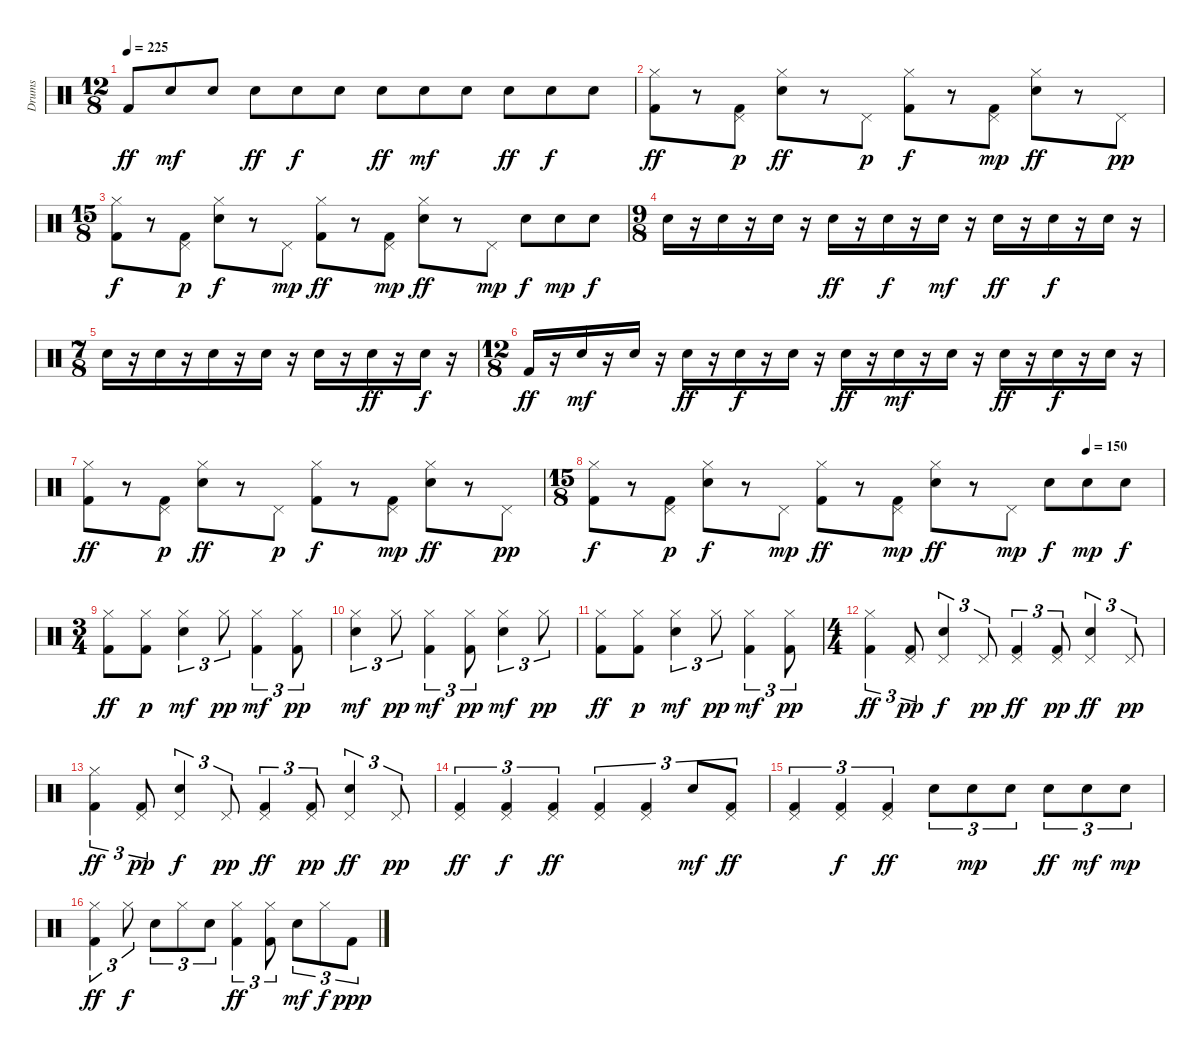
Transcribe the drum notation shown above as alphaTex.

\track ("Drums" "Drums") {instrument percussion}
\staff {score}
\articulation defaults
\ts (12 8)
\tempo 225
\clef neutral
\ks c "Kick (hit) 2".8{dy ff} "Snare (hit) 2".8{dy mf} "Snare (hit) 2".8 "Snare (hit) 2".8{dy ff} "Snare (hit) 2".8{dy f} "Snare (hit) 2".8 "Snare (hit) 2".8{dy ff} "Snare (hit) 2".8{dy mf} "Snare (hit) 2".8 "Snare (hit) 2".8{dy ff} "Snare (hit) 2".8{dy f} "Snare (hit) 2".8
|
("Kick (hit) 2" "Hi-Hat (closed)").8{dy ff} r.8 ("Kick (hit) 2" "Pedal Hi-Hat (hit)").8{dy p} ("Snare (hit) 2" "Hi-Hat (closed)").8{dy ff} r.8 "Pedal Hi-Hat (hit)".8{dy p} ("Kick (hit) 2" "Hi-Hat (closed)").8{dy f} r.8 ("Kick (hit) 2" "Pedal Hi-Hat (hit)").8{dy mp} ("Snare (hit) 2" "Hi-Hat (closed)").8{dy ff} r.8 "Pedal Hi-Hat (hit)".8{dy pp} |
\ts (15 8)
("Kick (hit) 2" "Hi-Hat (closed)").8{dy f} r.8 ("Kick (hit) 2" "Pedal Hi-Hat (hit)").8{dy p} ("Snare (hit) 2" "Hi-Hat (closed)").8{dy f} r.8 "Pedal Hi-Hat (hit)".8{dy mp} ("Kick (hit) 2" "Hi-Hat (closed)").8{dy ff} r.8 ("Kick (hit) 2" "Pedal Hi-Hat (hit)").8{dy mp} ("Snare (hit) 2" "Hi-Hat (closed)").8{dy ff} r.8 "Pedal Hi-Hat (hit)".8{dy mp} "Snare (hit) 2".8{dy f} "Snare (hit) 2".8{dy mp} "Snare (hit) 2".8{dy f} |
\ts (9 8)
"Snare (hit) 2".16 r.16 "Snare (hit) 2".16 r.16 "Snare (hit) 2".16 r.16 "Snare (hit) 2".16{dy ff} r.16 "Snare (hit) 2".16{dy f} r.16 "Snare (hit) 2".16{dy mf} r.16 "Snare (hit) 2".16{dy ff} r.16 "Snare (hit) 2".16{dy f} r.16 "Snare (hit) 2".16 r.16 |
\ts (7 8)
"Snare (hit) 2".16 r.16 "Snare (hit) 2".16 r.16 "Snare (hit) 2".16 r.16 "Snare (hit) 2".16 r.16 "Snare (hit) 2".16 r.16 "Snare (hit) 2".16{dy ff} r.16 "Snare (hit) 2".16{dy f} r.16 |
\ts (12 8)
"Kick (hit) 2".16{dy ff} r.16 "Snare (hit) 2".16{dy mf} r.16 "Snare (hit) 2".16 r.16 "Snare (hit) 2".16{dy ff} r.16 "Snare (hit) 2".16{dy f} r.16 "Snare (hit) 2".16 r.16 "Snare (hit) 2".16{dy ff} r.16 "Snare (hit) 2".16{dy mf} r.16 "Snare (hit) 2".16 r.16 "Snare (hit) 2".16{dy ff} r.16 "Snare (hit) 2".16{dy f} r.16 "Snare (hit) 2".16 r.16 |
("Kick (hit) 2" "Hi-Hat (closed)").8{dy ff} r.8 ("Kick (hit) 2" "Pedal Hi-Hat (hit)").8{dy p} ("Snare (hit) 2" "Hi-Hat (closed)").8{dy ff} r.8 "Pedal Hi-Hat (hit)".8{dy p} ("Kick (hit) 2" "Hi-Hat (closed)").8{dy f} r.8 ("Kick (hit) 2" "Pedal Hi-Hat (hit)").8{dy mp} ("Snare (hit) 2" "Hi-Hat (closed)").8{dy ff} r.8 "Pedal Hi-Hat (hit)".8{dy pp} |
\ts (15 8)
\tempo (150 0.8666666666666667)
("Kick (hit) 2" "Hi-Hat (closed)").8{dy f} r.8 ("Kick (hit) 2" "Pedal Hi-Hat (hit)").8{dy p} ("Snare (hit) 2" "Hi-Hat (closed)").8{dy f} r.8 "Pedal Hi-Hat (hit)".8{dy mp} ("Kick (hit) 2" "Hi-Hat (closed)").8{dy ff} r.8 ("Kick (hit) 2" "Pedal Hi-Hat (hit)").8{dy mp} ("Snare (hit) 2" "Hi-Hat (closed)").8{dy ff} r.8 "Pedal Hi-Hat (hit)".8{dy mp} "Snare (hit) 2".8{dy f} "Snare (hit) 2".8{dy mp} "Snare (hit) 2".8{dy f} |
\ts (3 4)
("Kick (hit) 2" "Hi-Hat (closed)").8{dy ff} ("Kick (hit) 2" "Hi-Hat (closed)").8{dy p} ("Snare (hit) 2" "Hi-Hat (closed)").4{tu (3 2) dy mf} "Hi-Hat (closed)".8{tu (3 2) dy pp} ("Kick (hit) 2" "Hi-Hat (closed)").4{tu (3 2) dy mf} ("Kick (hit) 2" "Hi-Hat (closed)").8{tu (3 2) dy pp} |
("Snare (hit) 2" "Hi-Hat (closed)").4{tu (3 2) dy mf} "Hi-Hat (closed)".8{tu (3 2) dy pp} ("Kick (hit) 2" "Hi-Hat (closed)").4{tu (3 2) dy mf} ("Kick (hit) 2" "Hi-Hat (closed)").8{tu (3 2) dy pp} ("Snare (hit) 2" "Hi-Hat (closed)").4{tu (3 2) dy mf} "Hi-Hat (closed)".8{tu (3 2) dy pp} |
("Kick (hit) 2" "Hi-Hat (closed)").8{dy ff} ("Kick (hit) 2" "Hi-Hat (closed)").8{dy p} ("Snare (hit) 2" "Hi-Hat (closed)").4{tu (3 2) dy mf} "Hi-Hat (closed)".8{tu (3 2) dy pp} ("Kick (hit) 2" "Hi-Hat (closed)").4{tu (3 2) dy mf} ("Kick (hit) 2" "Hi-Hat (closed)").8{tu (3 2) dy pp} |
\ts (4 4)
("Kick (hit) 2" "Hi-Hat (closed)").4{tu (3 2) dy ff} ("Kick (hit) 2" "Pedal Hi-Hat (hit)").8{tu (3 2) dy pp} ("Snare (hit) 2" "Pedal Hi-Hat (hit)").4{tu (3 2) dy f} "Pedal Hi-Hat (hit)".8{tu (3 2) dy pp} ("Kick (hit) 2" "Pedal Hi-Hat (hit)").4{tu (3 2) dy ff} ("Kick (hit) 2" "Pedal Hi-Hat (hit)").8{tu (3 2) dy pp} ("Snare (hit) 2" "Pedal Hi-Hat (hit)").4{tu (3 2) dy ff} "Pedal Hi-Hat (hit)".8{tu (3 2) dy pp} |
("Kick (hit) 2" "Hi-Hat (closed)").4{tu (3 2) dy ff} ("Kick (hit) 2" "Pedal Hi-Hat (hit)").8{tu (3 2) dy pp} ("Snare (hit) 2" "Pedal Hi-Hat (hit)").4{tu (3 2) dy f} "Pedal Hi-Hat (hit)".8{tu (3 2) dy pp} ("Kick (hit) 2" "Pedal Hi-Hat (hit)").4{tu (3 2) dy ff} ("Kick (hit) 2" "Pedal Hi-Hat (hit)").8{tu (3 2) dy pp} ("Snare (hit) 2" "Pedal Hi-Hat (hit)").4{tu (3 2) dy ff} "Pedal Hi-Hat (hit)".8{tu (3 2) dy pp} |
("Kick (hit) 2" "Pedal Hi-Hat (hit)").4{tu (3 2) dy ff} ("Kick (hit) 2" "Pedal Hi-Hat (hit)").4{tu (3 2) dy f} ("Kick (hit) 2" "Pedal Hi-Hat (hit)").4{tu (3 2) dy ff} ("Kick (hit) 2" "Pedal Hi-Hat (hit)").4{tu (3 2)} ("Kick (hit) 2" "Pedal Hi-Hat (hit)").4{tu (3 2)} "Snare (hit) 2".8{tu (3 2) dy mf} ("Kick (hit) 2" "Pedal Hi-Hat (hit)").8{tu (3 2) dy ff} |
("Kick (hit) 2" "Pedal Hi-Hat (hit)").4{tu (3 2)} ("Kick (hit) 2" "Pedal Hi-Hat (hit)").4{tu (3 2) dy f} ("Kick (hit) 2" "Pedal Hi-Hat (hit)").4{tu (3 2) dy ff} "Snare (hit) 2".8{tu (3 2)} "Snare (hit) 2".8{tu (3 2) dy mp} "Snare (hit) 2".8{tu (3 2)} "Snare (hit) 2".8{tu (3 2) dy ff} "Snare (hit) 2".8{tu (3 2) dy mf} "Snare (hit) 2".8{tu (3 2) dy mp} |
("Kick (hit) 2" "Hi-Hat (closed)").4{tu (3 2) dy ff} "Hi-Hat (closed)".8{tu (3 2) dy f} "Snare (hit) 2".8{tu (3 2)} "Hi-Hat (closed)".8{tu (3 2)} "Snare (hit) 2".8{tu (3 2)} ("Kick (hit) 2" "Hi-Hat (closed)").4{tu (3 2) dy ff} ("Kick (hit) 2" "Hi-Hat (closed)").8{tu (3 2)} "Snare (hit) 2".8{tu (3 2) dy mf} "Hi-Hat (closed)".8{tu (3 2) dy f} "Kick (hit) 2".8{tu (3 2) dy ppp}
